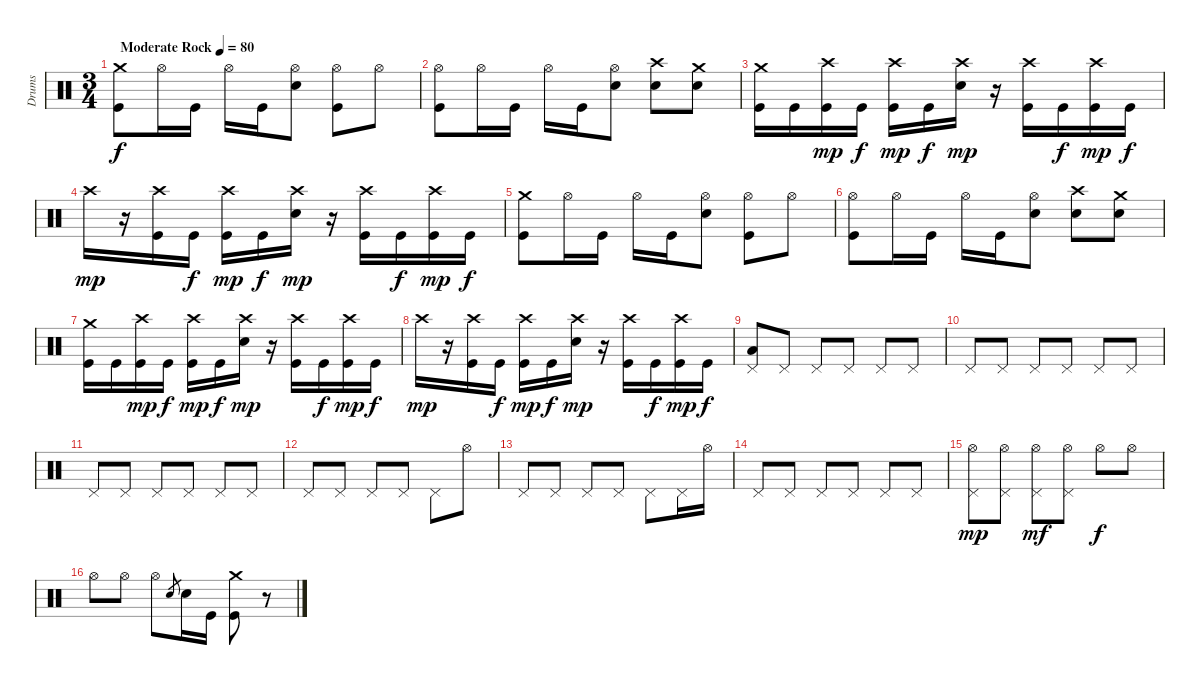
\track ("Drums" "Drums") {instrument percussion}
\staff {score}
\articulation defaults
\ts (3 4)
\tempo (80 "Moderate Rock")
\clef neutral
\ks c
("Crash medium (hit)" "Kick (hit)").8{dy f} "Hi-Hat (open)".16 "Kick (hit)".16 "Hi-Hat (open)".16 "Kick (hit)".16 ("Hi-Hat (open)" "Electric Snare (hit)").8 ("Hi-Hat (open)" "Kick (hit)").8 "Hi-Hat (open)".8 |
("Hi-Hat (open)" "Kick (hit)").8 "Hi-Hat (open)".16 "Kick (hit)".16 "Hi-Hat (open)".16 "Kick (hit)".16 ("Hi-Hat (open)" "Electric Snare (hit)").8 ("Crash high (hit)" "Electric Snare (hit)").8 ("Crash medium (hit)" "Electric Snare (hit)").8 |
("Crash medium (hit)" "Kick (hit)").16 "Kick (hit)".16 ("Crash high (hit)" "Kick (hit)").16{dy mp} "Kick (hit)".16{dy f} ("Crash high (hit)" "Kick (hit)").16{dy mp} "Kick (hit)".16{dy f} ("Crash high (hit)" "Electric Snare (hit)").16{dy mp} r.16 ("Crash high (hit)" "Kick (hit)").16 "Kick (hit)".16{dy f} ("Crash high (hit)" "Kick (hit)").16{dy mp} "Kick (hit)".16{dy f} |
"Crash high (hit)".16{dy mp} r.16 ("Crash high (hit)" "Kick (hit)").16 "Kick (hit)".16{dy f} ("Crash high (hit)" "Kick (hit)").16{dy mp} "Kick (hit)".16{dy f} ("Crash high (hit)" "Electric Snare (hit)").16{dy mp} r.16 ("Crash high (hit)" "Kick (hit)").16 "Kick (hit)".16{dy f} ("Crash high (hit)" "Kick (hit)").16{dy mp} "Kick (hit)".16{dy f} |
("Crash medium (hit)" "Kick (hit)").8 "Hi-Hat (open)".16 "Kick (hit)".16 "Hi-Hat (open)".16 "Kick (hit)".16 ("Hi-Hat (open)" "Electric Snare (hit)").8 ("Hi-Hat (open)" "Kick (hit)").8 "Hi-Hat (open)".8 |
("Hi-Hat (open)" "Kick (hit)").8 "Hi-Hat (open)".16 "Kick (hit)".16 "Hi-Hat (open)".16 "Kick (hit)".16 ("Hi-Hat (open)" "Electric Snare (hit)").8 ("Crash high (hit)" "Electric Snare (hit)").8 ("Crash medium (hit)" "Electric Snare (hit)").8 |
("Crash medium (hit)" "Kick (hit)").16 "Kick (hit)".16 ("Crash high (hit)" "Kick (hit)").16{dy mp} "Kick (hit)".16{dy f} ("Crash high (hit)" "Kick (hit)").16{dy mp} "Kick (hit)".16{dy f} ("Crash high (hit)" "Electric Snare (hit)").16{dy mp} r.16 ("Crash high (hit)" "Kick (hit)").16 "Kick (hit)".16{dy f} ("Crash high (hit)" "Kick (hit)").16{dy mp} "Kick (hit)".16{dy f} |
"Crash high (hit)".16{dy mp} r.16 ("Crash high (hit)" "Kick (hit)").16 "Kick (hit)".16{dy f} ("Crash high (hit)" "Kick (hit)").16{dy mp} "Kick (hit)".16{dy f} ("Crash high (hit)" "Electric Snare (hit)").16{dy mp} r.16 ("Crash high (hit)" "Kick (hit)").16 "Kick (hit)".16{dy f} ("Crash high (hit)" "Kick (hit)").16{dy mp} "Kick (hit)".16{dy f} |
("Pedal Hi-Hat (hit)" "Low Floor Tom (hit)").8 "Pedal Hi-Hat (hit)".8 "Pedal Hi-Hat (hit)".8 "Pedal Hi-Hat (hit)".8 "Pedal Hi-Hat (hit)".8 "Pedal Hi-Hat (hit)".8 |
"Pedal Hi-Hat (hit)".8 "Pedal Hi-Hat (hit)".8 "Pedal Hi-Hat (hit)".8 "Pedal Hi-Hat (hit)".8 "Pedal Hi-Hat (hit)".8 "Pedal Hi-Hat (hit)".8 |
"Pedal Hi-Hat (hit)".8 "Pedal Hi-Hat (hit)".8 "Pedal Hi-Hat (hit)".8 "Pedal Hi-Hat (hit)".8 "Pedal Hi-Hat (hit)".8 "Pedal Hi-Hat (hit)".8 |
"Pedal Hi-Hat (hit)".8 "Pedal Hi-Hat (hit)".8 "Pedal Hi-Hat (hit)".8 "Pedal Hi-Hat (hit)".8 "Pedal Hi-Hat (hit)".8 "Hi-Hat (open)".8 |
"Pedal Hi-Hat (hit)".8 "Pedal Hi-Hat (hit)".8 "Pedal Hi-Hat (hit)".8 "Pedal Hi-Hat (hit)".8 "Pedal Hi-Hat (hit)".8 "Pedal Hi-Hat (hit)".16 "Hi-Hat (open)".16 |
"Pedal Hi-Hat (hit)".8 "Pedal Hi-Hat (hit)".8 "Pedal Hi-Hat (hit)".8 "Pedal Hi-Hat (hit)".8 "Pedal Hi-Hat (hit)".8 "Pedal Hi-Hat (hit)".8 |
("Pedal Hi-Hat (hit)" "Hi-Hat (open)").8{dy mp} ("Pedal Hi-Hat (hit)" "Hi-Hat (open)").8 ("Pedal Hi-Hat (hit)" "Hi-Hat (open)").8{dy mf} ("Pedal Hi-Hat (hit)" "Hi-Hat (open)").8 "Hi-Hat (open)".8{dy f} "Hi-Hat (open)".8 |
"Hi-Hat (open)".8 "Hi-Hat (open)".8 "Hi-Hat (open)".8 "Electric Snare (hit)".8{gr} "Electric Snare (hit)".16 "Kick (hit)".16 ("Crash medium (hit)" "Kick (hit)").8 r.8
